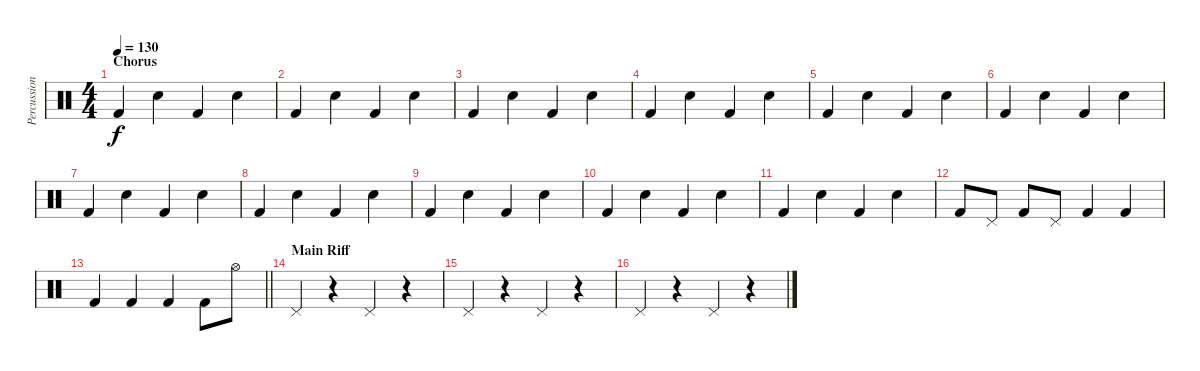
\track ("Percussion 2" "Percussion") {instrument percussion}
\staff {score}
\articulation defaults
\ts (4 4)
\section ("" "Chorus")
\tempo 130
\clef neutral
\ks c "Kick (hit) 2".4{dy f} "Electric Snare (hit)".4 "Kick (hit) 2".4 "Electric Snare (hit)".4
|
"Kick (hit) 2".4 "Electric Snare (hit)".4 "Kick (hit) 2".4 "Electric Snare (hit)".4 |
"Kick (hit) 2".4 "Electric Snare (hit)".4 "Kick (hit) 2".4 "Electric Snare (hit)".4 |
"Kick (hit) 2".4 "Electric Snare (hit)".4 "Kick (hit) 2".4 "Electric Snare (hit)".4 |
"Kick (hit) 2".4 "Electric Snare (hit)".4 "Kick (hit) 2".4 "Electric Snare (hit)".4 |
"Kick (hit) 2".4 "Electric Snare (hit)".4 "Kick (hit) 2".4 "Electric Snare (hit)".4 |
"Kick (hit) 2".4 "Electric Snare (hit)".4 "Kick (hit) 2".4 "Electric Snare (hit)".4 |
"Kick (hit) 2".4 "Electric Snare (hit)".4 "Kick (hit) 2".4 "Electric Snare (hit)".4 |
"Kick (hit) 2".4 "Electric Snare (hit)".4 "Kick (hit) 2".4 "Electric Snare (hit)".4 |
"Kick (hit) 2".4 "Electric Snare (hit)".4 "Kick (hit) 2".4 "Electric Snare (hit)".4 |
"Kick (hit) 2".4 "Electric Snare (hit)".4 "Kick (hit) 2".4 "Electric Snare (hit)".4 |
"Kick (hit) 2".8 "Pedal Hi-Hat (hit)".8 "Kick (hit) 2".8 "Pedal Hi-Hat (hit)".8 "Kick (hit) 2".4 "Kick (hit) 2".4 |
\barLineRight lightlight "Kick (hit) 2".4 "Kick (hit) 2".4 "Kick (hit) 2".4 "Kick (hit) 2".8 "Hi-Hat (open)".8
|
\section ("" "Main Riff")
"Pedal Hi-Hat (hit)".4 r.4 "Pedal Hi-Hat (hit)".4 r.4 |
"Pedal Hi-Hat (hit)".4 r.4 "Pedal Hi-Hat (hit)".4 r.4 |
"Pedal Hi-Hat (hit)".4 r.4 "Pedal Hi-Hat (hit)".4 r.4
